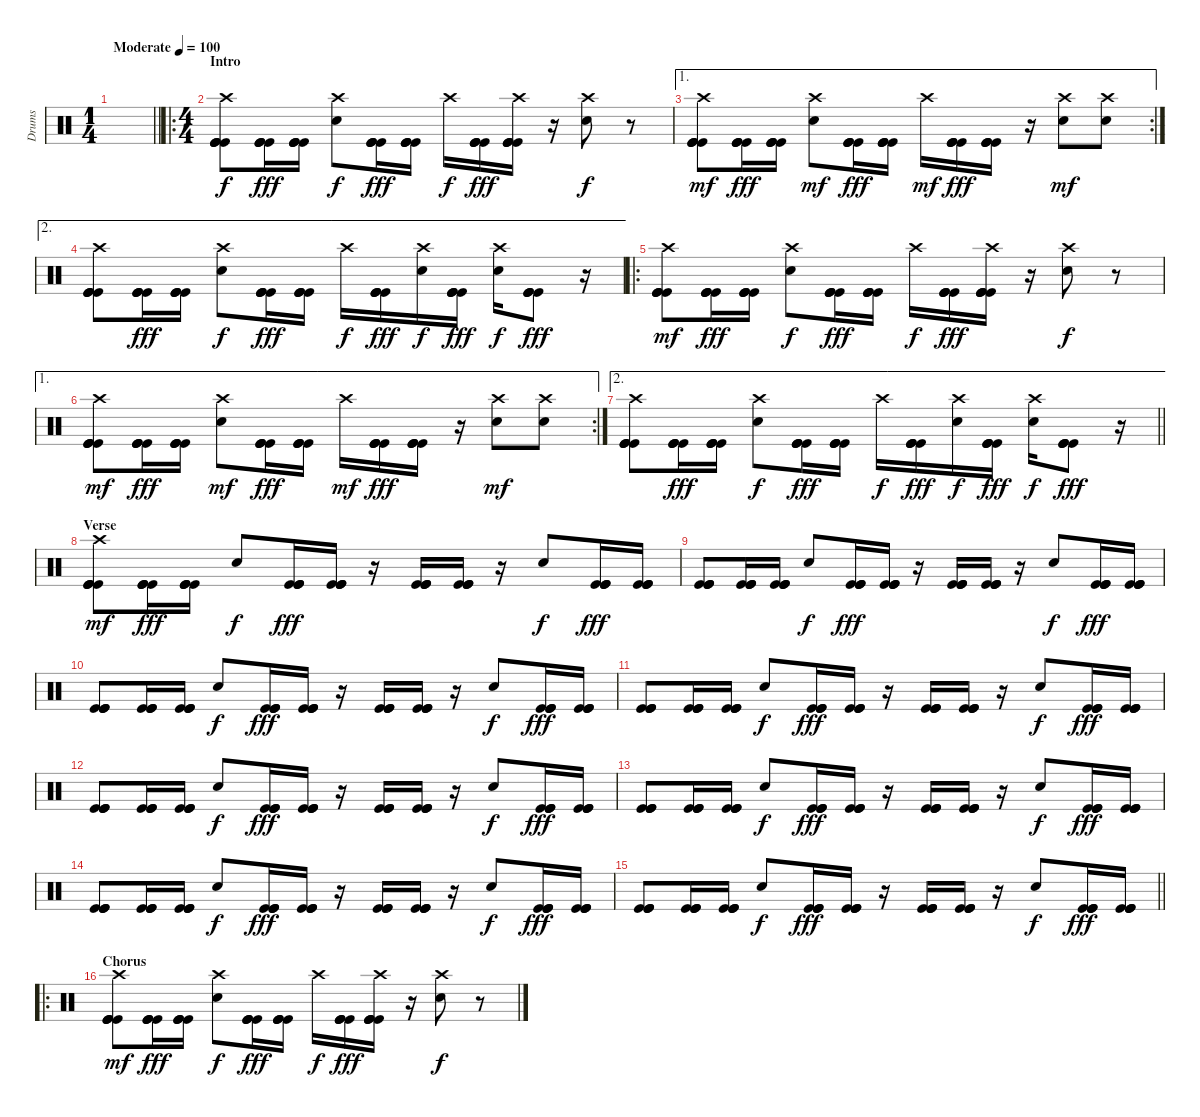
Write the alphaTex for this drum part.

\track ("Drums" "Drums") {instrument percussion}
\staff {score}
\articulation defaults
\ts (1 4)
\tempo (100 "Moderate")
\clef neutral
\barLineRight lightlight
\ks c
|
\ro
\ts (4 4)
\section ("" "Intro")
("Kick (hit)" "Kick (hit)" "Kick (hit)" "Kick (hit)" "Crash high (hit)").8 ("Kick (hit)" "Kick (hit)" "Kick (hit)" "Kick (hit)").16{dy fff} ("Kick (hit)" "Kick (hit)" "Kick (hit)" "Kick (hit)").16 ("Electric Snare (hit)" "Crash high (hit)").8{dy f} ("Kick (hit)" "Kick (hit)" "Kick (hit)" "Kick (hit)").16{dy fff} ("Kick (hit)" "Kick (hit)" "Kick (hit)" "Kick (hit)").16 "Crash high (hit)".16{dy f} ("Kick (hit)" "Kick (hit)" "Kick (hit)" "Kick (hit)").16{dy fff} ("Kick (hit)" "Kick (hit)" "Kick (hit)" "Kick (hit)" "Crash high (hit)").16 r.16 ("Electric Snare (hit)" "Crash high (hit)").8{dy f} r.8 |
\ae 1
\rc 2
("Kick (hit)" "Kick (hit)" "Kick (hit)" "Kick (hit)" "Crash high (hit)").8{dy mf} ("Kick (hit)" "Kick (hit)" "Kick (hit)" "Kick (hit)").16{dy fff} ("Kick (hit)" "Kick (hit)" "Kick (hit)" "Kick (hit)").16 ("Electric Snare (hit)" "Crash high (hit)").8{dy mf} ("Kick (hit)" "Kick (hit)" "Kick (hit)" "Kick (hit)").16{dy fff} ("Kick (hit)" "Kick (hit)" "Kick (hit)" "Kick (hit)").16 "Crash high (hit)".16{dy mf} ("Kick (hit)" "Kick (hit)" "Kick (hit)" "Kick (hit)").16{dy fff} ("Kick (hit)" "Kick (hit)" "Kick (hit)" "Kick (hit)").16 r.16 ("Electric Snare (hit)" "Crash high (hit)").8{dy mf} ("Electric Snare (hit)" "Crash high (hit)").8 |
\ae 2
("Kick (hit)" "Kick (hit)" "Kick (hit)" "Kick (hit)" "Crash high (hit)").8 ("Kick (hit)" "Kick (hit)" "Kick (hit)" "Kick (hit)").16{dy fff} ("Kick (hit)" "Kick (hit)" "Kick (hit)" "Kick (hit)").16 ("Electric Snare (hit)" "Crash high (hit)").8{dy f} ("Kick (hit)" "Kick (hit)" "Kick (hit)" "Kick (hit)").16{dy fff} ("Kick (hit)" "Kick (hit)" "Kick (hit)" "Kick (hit)").16 "Crash high (hit)".16{dy f} ("Kick (hit)" "Kick (hit)" "Kick (hit)" "Kick (hit)").16{dy fff} ("Electric Snare (hit)" "Crash high (hit)").16{dy f} ("Kick (hit)" "Kick (hit)" "Kick (hit)" "Kick (hit)").16{dy fff} ("Electric Snare (hit)" "Crash high (hit)").16{dy f} ("Kick (hit)" "Kick (hit)" "Kick (hit)" "Kick (hit)").8{dy fff} r.16 |
\ro
("Kick (hit)" "Kick (hit)" "Kick (hit)" "Kick (hit)" "Crash high (hit)").8{dy mf} ("Kick (hit)" "Kick (hit)" "Kick (hit)" "Kick (hit)").16{dy fff} ("Kick (hit)" "Kick (hit)" "Kick (hit)" "Kick (hit)").16 ("Electric Snare (hit)" "Crash high (hit)").8{dy f} ("Kick (hit)" "Kick (hit)" "Kick (hit)" "Kick (hit)").16{dy fff} ("Kick (hit)" "Kick (hit)" "Kick (hit)" "Kick (hit)").16 "Crash high (hit)".16{dy f} ("Kick (hit)" "Kick (hit)" "Kick (hit)" "Kick (hit)").16{dy fff} ("Kick (hit)" "Kick (hit)" "Kick (hit)" "Kick (hit)" "Crash high (hit)").16 r.16 ("Electric Snare (hit)" "Crash high (hit)").8{dy f} r.8 |
\ae 1
\rc 2
("Kick (hit)" "Kick (hit)" "Kick (hit)" "Kick (hit)" "Crash high (hit)").8{dy mf} ("Kick (hit)" "Kick (hit)" "Kick (hit)" "Kick (hit)").16{dy fff} ("Kick (hit)" "Kick (hit)" "Kick (hit)" "Kick (hit)").16 ("Electric Snare (hit)" "Crash high (hit)").8{dy mf} ("Kick (hit)" "Kick (hit)" "Kick (hit)" "Kick (hit)").16{dy fff} ("Kick (hit)" "Kick (hit)" "Kick (hit)" "Kick (hit)").16 "Crash high (hit)".16{dy mf} ("Kick (hit)" "Kick (hit)" "Kick (hit)" "Kick (hit)").16{dy fff} ("Kick (hit)" "Kick (hit)" "Kick (hit)" "Kick (hit)").16 r.16 ("Electric Snare (hit)" "Crash high (hit)").8{dy mf} ("Electric Snare (hit)" "Crash high (hit)").8 |
\ae 2
\barLineRight lightlight
("Kick (hit)" "Kick (hit)" "Kick (hit)" "Kick (hit)" "Crash high (hit)").8 ("Kick (hit)" "Kick (hit)" "Kick (hit)" "Kick (hit)").16{dy fff} ("Kick (hit)" "Kick (hit)" "Kick (hit)" "Kick (hit)").16 ("Electric Snare (hit)" "Crash high (hit)").8{dy f} ("Kick (hit)" "Kick (hit)" "Kick (hit)" "Kick (hit)").16{dy fff} ("Kick (hit)" "Kick (hit)" "Kick (hit)" "Kick (hit)").16 "Crash high (hit)".16{dy f} ("Kick (hit)" "Kick (hit)" "Kick (hit)" "Kick (hit)").16{dy fff} ("Electric Snare (hit)" "Crash high (hit)").16{dy f} ("Kick (hit)" "Kick (hit)" "Kick (hit)" "Kick (hit)").16{dy fff} ("Electric Snare (hit)" "Crash high (hit)").16{dy f} ("Kick (hit)" "Kick (hit)" "Kick (hit)" "Kick (hit)").8{dy fff} r.16 |
\section ("" "Verse")
("Kick (hit)" "Kick (hit)" "Kick (hit)" "Kick (hit)" "Crash high (hit)").8{dy mf} ("Kick (hit)" "Kick (hit)" "Kick (hit)" "Kick (hit)").16{dy fff} ("Kick (hit)" "Kick (hit)" "Kick (hit)" "Kick (hit)").16 "Electric Snare (hit)".8{dy f} ("Kick (hit)" "Kick (hit)" "Kick (hit)" "Kick (hit)").16{dy fff} ("Kick (hit)" "Kick (hit)" "Kick (hit)" "Kick (hit)").16 r.16 ("Kick (hit)" "Kick (hit)" "Kick (hit)" "Kick (hit)").16 ("Kick (hit)" "Kick (hit)" "Kick (hit)" "Kick (hit)").16 r.16 "Electric Snare (hit)".8{dy f} ("Kick (hit)" "Kick (hit)" "Kick (hit)" "Kick (hit)").16{dy fff} ("Kick (hit)" "Kick (hit)" "Kick (hit)" "Kick (hit)").16 |
("Kick (hit)" "Kick (hit)" "Kick (hit)" "Kick (hit)").8 ("Kick (hit)" "Kick (hit)" "Kick (hit)" "Kick (hit)").16 ("Kick (hit)" "Kick (hit)" "Kick (hit)" "Kick (hit)").16 "Electric Snare (hit)".8{dy f} ("Kick (hit)" "Kick (hit)" "Kick (hit)" "Kick (hit)").16{dy fff} ("Kick (hit)" "Kick (hit)" "Kick (hit)" "Kick (hit)").16 r.16 ("Kick (hit)" "Kick (hit)" "Kick (hit)" "Kick (hit)").16 ("Kick (hit)" "Kick (hit)" "Kick (hit)" "Kick (hit)").16 r.16 "Electric Snare (hit)".8{dy f} ("Kick (hit)" "Kick (hit)" "Kick (hit)" "Kick (hit)").16{dy fff} ("Kick (hit)" "Kick (hit)" "Kick (hit)" "Kick (hit)").16 |
("Kick (hit)" "Kick (hit)" "Kick (hit)" "Kick (hit)").8 ("Kick (hit)" "Kick (hit)" "Kick (hit)" "Kick (hit)").16 ("Kick (hit)" "Kick (hit)" "Kick (hit)" "Kick (hit)").16 "Electric Snare (hit)".8{dy f} ("Kick (hit)" "Kick (hit)" "Kick (hit)" "Kick (hit)").16{dy fff} ("Kick (hit)" "Kick (hit)" "Kick (hit)" "Kick (hit)").16 r.16 ("Kick (hit)" "Kick (hit)" "Kick (hit)" "Kick (hit)").16 ("Kick (hit)" "Kick (hit)" "Kick (hit)" "Kick (hit)").16 r.16 "Electric Snare (hit)".8{dy f} ("Kick (hit)" "Kick (hit)" "Kick (hit)" "Kick (hit)").16{dy fff} ("Kick (hit)" "Kick (hit)" "Kick (hit)" "Kick (hit)").16 |
("Kick (hit)" "Kick (hit)" "Kick (hit)" "Kick (hit)").8 ("Kick (hit)" "Kick (hit)" "Kick (hit)" "Kick (hit)").16 ("Kick (hit)" "Kick (hit)" "Kick (hit)" "Kick (hit)").16 "Electric Snare (hit)".8{dy f} ("Kick (hit)" "Kick (hit)" "Kick (hit)" "Kick (hit)").16{dy fff} ("Kick (hit)" "Kick (hit)" "Kick (hit)" "Kick (hit)").16 r.16 ("Kick (hit)" "Kick (hit)" "Kick (hit)" "Kick (hit)").16 ("Kick (hit)" "Kick (hit)" "Kick (hit)" "Kick (hit)").16 r.16 "Electric Snare (hit)".8{dy f} ("Kick (hit)" "Kick (hit)" "Kick (hit)" "Kick (hit)").16{dy fff} ("Kick (hit)" "Kick (hit)" "Kick (hit)" "Kick (hit)").16 |
("Kick (hit)" "Kick (hit)" "Kick (hit)" "Kick (hit)").8 ("Kick (hit)" "Kick (hit)" "Kick (hit)" "Kick (hit)").16 ("Kick (hit)" "Kick (hit)" "Kick (hit)" "Kick (hit)").16 "Electric Snare (hit)".8{dy f} ("Kick (hit)" "Kick (hit)" "Kick (hit)" "Kick (hit)").16{dy fff} ("Kick (hit)" "Kick (hit)" "Kick (hit)" "Kick (hit)").16 r.16 ("Kick (hit)" "Kick (hit)" "Kick (hit)" "Kick (hit)").16 ("Kick (hit)" "Kick (hit)" "Kick (hit)" "Kick (hit)").16 r.16 "Electric Snare (hit)".8{dy f} ("Kick (hit)" "Kick (hit)" "Kick (hit)" "Kick (hit)").16{dy fff} ("Kick (hit)" "Kick (hit)" "Kick (hit)" "Kick (hit)").16 |
("Kick (hit)" "Kick (hit)" "Kick (hit)" "Kick (hit)").8 ("Kick (hit)" "Kick (hit)" "Kick (hit)" "Kick (hit)").16 ("Kick (hit)" "Kick (hit)" "Kick (hit)" "Kick (hit)").16 "Electric Snare (hit)".8{dy f} ("Kick (hit)" "Kick (hit)" "Kick (hit)" "Kick (hit)").16{dy fff} ("Kick (hit)" "Kick (hit)" "Kick (hit)" "Kick (hit)").16 r.16 ("Kick (hit)" "Kick (hit)" "Kick (hit)" "Kick (hit)").16 ("Kick (hit)" "Kick (hit)" "Kick (hit)" "Kick (hit)").16 r.16 "Electric Snare (hit)".8{dy f} ("Kick (hit)" "Kick (hit)" "Kick (hit)" "Kick (hit)").16{dy fff} ("Kick (hit)" "Kick (hit)" "Kick (hit)" "Kick (hit)").16 |
("Kick (hit)" "Kick (hit)" "Kick (hit)" "Kick (hit)").8 ("Kick (hit)" "Kick (hit)" "Kick (hit)" "Kick (hit)").16 ("Kick (hit)" "Kick (hit)" "Kick (hit)" "Kick (hit)").16 "Electric Snare (hit)".8{dy f} ("Kick (hit)" "Kick (hit)" "Kick (hit)" "Kick (hit)").16{dy fff} ("Kick (hit)" "Kick (hit)" "Kick (hit)" "Kick (hit)").16 r.16 ("Kick (hit)" "Kick (hit)" "Kick (hit)" "Kick (hit)").16 ("Kick (hit)" "Kick (hit)" "Kick (hit)" "Kick (hit)").16 r.16 "Electric Snare (hit)".8{dy f} ("Kick (hit)" "Kick (hit)" "Kick (hit)" "Kick (hit)").16{dy fff} ("Kick (hit)" "Kick (hit)" "Kick (hit)" "Kick (hit)").16 |
\barLineRight lightlight
("Kick (hit)" "Kick (hit)" "Kick (hit)" "Kick (hit)").8 ("Kick (hit)" "Kick (hit)" "Kick (hit)" "Kick (hit)").16 ("Kick (hit)" "Kick (hit)" "Kick (hit)" "Kick (hit)").16 "Electric Snare (hit)".8{dy f} ("Kick (hit)" "Kick (hit)" "Kick (hit)" "Kick (hit)").16{dy fff} ("Kick (hit)" "Kick (hit)" "Kick (hit)" "Kick (hit)").16 r.16 ("Kick (hit)" "Kick (hit)" "Kick (hit)" "Kick (hit)").16 ("Kick (hit)" "Kick (hit)" "Kick (hit)" "Kick (hit)").16 r.16 "Electric Snare (hit)".8{dy f} ("Kick (hit)" "Kick (hit)" "Kick (hit)" "Kick (hit)").16{dy fff} ("Kick (hit)" "Kick (hit)" "Kick (hit)" "Kick (hit)").16 |
\ro
\section ("" "Chorus")
("Kick (hit)" "Kick (hit)" "Kick (hit)" "Kick (hit)" "Crash high (hit)").8{dy mf} ("Kick (hit)" "Kick (hit)" "Kick (hit)" "Kick (hit)").16{dy fff} ("Kick (hit)" "Kick (hit)" "Kick (hit)" "Kick (hit)").16 ("Electric Snare (hit)" "Crash high (hit)").8{dy f} ("Kick (hit)" "Kick (hit)" "Kick (hit)" "Kick (hit)").16{dy fff} ("Kick (hit)" "Kick (hit)" "Kick (hit)" "Kick (hit)").16 "Crash high (hit)".16{dy f} ("Kick (hit)" "Kick (hit)" "Kick (hit)" "Kick (hit)").16{dy fff} ("Kick (hit)" "Kick (hit)" "Kick (hit)" "Kick (hit)" "Crash high (hit)").16 r.16 ("Electric Snare (hit)" "Crash high (hit)").8{dy f} r.8
